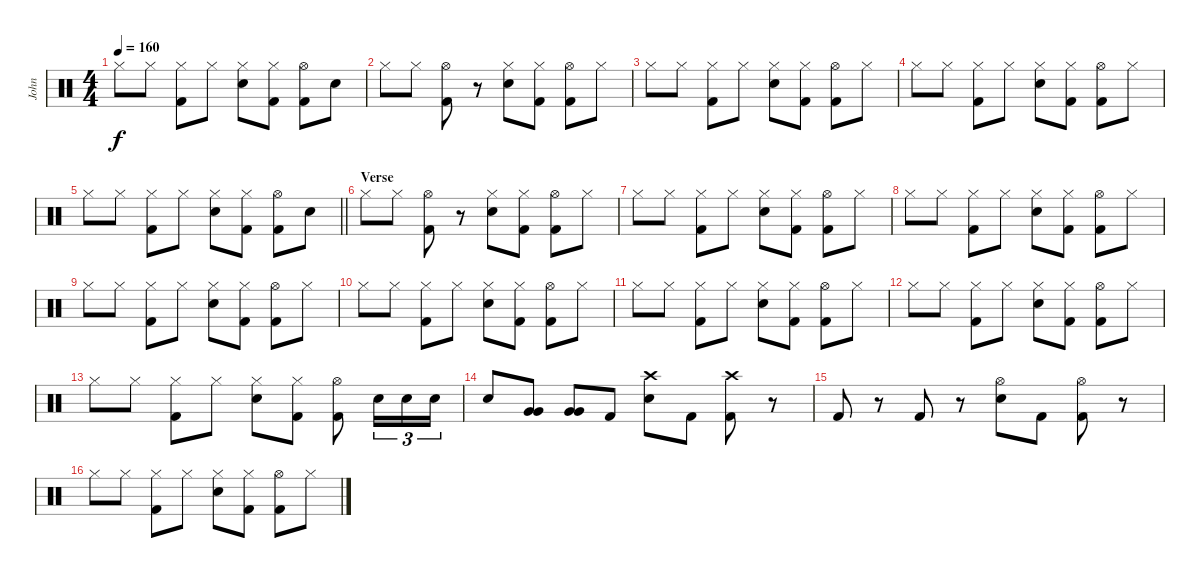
\track ("John" "John") {instrument percussion}
\staff {score}
\articulation defaults
\ts (4 4)
\tempo 160
\clef neutral
\ks c "Hi-Hat (closed)".8{dy f} "Hi-Hat (closed)".8
("Hi-Hat (closed)" "Kick (hit) 2").8 "Hi-Hat (closed)".8 ("Hi-Hat (closed)" "Snare (hit) 2").8 ("Hi-Hat (closed)" "Kick (hit) 2").8 ("Hi-Hat (open)" "Kick (hit) 2").8 "Snare (hit) 2".8 |
"Hi-Hat (closed)".8 "Hi-Hat (closed)".8 ("Hi-Hat (open)" "Kick (hit) 2").8 r.8 ("Hi-Hat (closed)" "Snare (hit) 2").8 ("Hi-Hat (closed)" "Kick (hit) 2").8 ("Hi-Hat (open)" "Kick (hit) 2").8 "Hi-Hat (closed)".8 |
"Hi-Hat (closed)".8 "Hi-Hat (closed)".8 ("Hi-Hat (closed)" "Kick (hit) 2").8 "Hi-Hat (closed)".8 ("Hi-Hat (closed)" "Snare (hit) 2").8 ("Hi-Hat (closed)" "Kick (hit) 2").8 ("Hi-Hat (open)" "Kick (hit) 2").8 "Hi-Hat (closed)".8 |
"Hi-Hat (closed)".8 "Hi-Hat (closed)".8 ("Hi-Hat (closed)" "Kick (hit) 2").8 "Hi-Hat (closed)".8 ("Hi-Hat (closed)" "Snare (hit) 2").8 ("Hi-Hat (closed)" "Kick (hit) 2").8 ("Hi-Hat (open)" "Kick (hit) 2").8 "Hi-Hat (closed)".8 |
\barLineRight lightlight "Hi-Hat (closed)".8 "Hi-Hat (closed)".8
("Hi-Hat (closed)" "Kick (hit) 2").8 "Hi-Hat (closed)".8 ("Hi-Hat (closed)" "Snare (hit) 2").8 ("Hi-Hat (closed)" "Kick (hit) 2").8 ("Hi-Hat (open)" "Kick (hit) 2").8 "Snare (hit) 2".8 |
\section ("" "Verse")
"Hi-Hat (closed)".8 "Hi-Hat (closed)".8 ("Hi-Hat (open)" "Kick (hit) 2").8 r.8 ("Hi-Hat (closed)" "Snare (hit) 2").8 ("Hi-Hat (closed)" "Kick (hit) 2").8 ("Hi-Hat (open)" "Kick (hit) 2").8 "Hi-Hat (closed)".8 |
"Hi-Hat (closed)".8 "Hi-Hat (closed)".8 ("Hi-Hat (closed)" "Kick (hit) 2").8 "Hi-Hat (closed)".8 ("Hi-Hat (closed)" "Snare (hit) 2").8 ("Hi-Hat (closed)" "Kick (hit) 2").8 ("Hi-Hat (open)" "Kick (hit) 2").8 "Hi-Hat (closed)".8 |
"Hi-Hat (closed)".8 "Hi-Hat (closed)".8 ("Hi-Hat (closed)" "Kick (hit) 2").8 "Hi-Hat (closed)".8 ("Hi-Hat (closed)" "Snare (hit) 2").8 ("Hi-Hat (closed)" "Kick (hit) 2").8 ("Hi-Hat (open)" "Kick (hit) 2").8 "Hi-Hat (closed)".8 |
"Hi-Hat (closed)".8 "Hi-Hat (closed)".8 ("Hi-Hat (closed)" "Kick (hit) 2").8 "Hi-Hat (closed)".8 ("Hi-Hat (closed)" "Snare (hit) 2").8 ("Hi-Hat (closed)" "Kick (hit) 2").8 ("Hi-Hat (open)" "Kick (hit) 2").8 "Hi-Hat (closed)".8 |
"Hi-Hat (closed)".8 "Hi-Hat (closed)".8 ("Hi-Hat (closed)" "Kick (hit) 2").8 "Hi-Hat (closed)".8 ("Hi-Hat (closed)" "Snare (hit) 2").8 ("Hi-Hat (closed)" "Kick (hit) 2").8 ("Hi-Hat (open)" "Kick (hit) 2").8 "Hi-Hat (closed)".8 |
"Hi-Hat (closed)".8 "Hi-Hat (closed)".8 ("Hi-Hat (closed)" "Kick (hit) 2").8 "Hi-Hat (closed)".8 ("Hi-Hat (closed)" "Snare (hit) 2").8 ("Hi-Hat (closed)" "Kick (hit) 2").8 ("Hi-Hat (open)" "Kick (hit) 2").8 "Hi-Hat (closed)".8 |
"Hi-Hat (closed)".8 "Hi-Hat (closed)".8 ("Hi-Hat (closed)" "Kick (hit) 2").8 "Hi-Hat (closed)".8 ("Hi-Hat (closed)" "Snare (hit) 2").8 ("Hi-Hat (closed)" "Kick (hit) 2").8 ("Hi-Hat (open)" "Kick (hit) 2").8 "Hi-Hat (closed)".8 |
"Hi-Hat (closed)".8 "Hi-Hat (closed)".8 ("Hi-Hat (closed)" "Kick (hit) 2").8 "Hi-Hat (closed)".8 ("Hi-Hat (closed)" "Snare (hit) 2").8 ("Hi-Hat (closed)" "Kick (hit) 2").8 ("Hi-Hat (open)" "Kick (hit) 2").8 "Snare (hit) 2".16{tu (3 2)} "Snare (hit) 2".16{tu (3 2)} "Snare (hit) 2".16{tu (3 2)} |
"Snare (hit) 2".8 ("Very Low Tom (hit)" "Very Low Tom (hit)").8 ("Very Low Tom (hit)" "Very Low Tom (hit)").8 "Kick (hit) 2".8 ("Crash high (hit)" "Snare (hit) 2").8 "Kick (hit) 2".8 ("Crash high (hit)" "Kick (hit) 2").8 r.8 |
"Kick (hit) 2".8 r.8 "Kick (hit) 2".8 r.8 ("Hi-Hat (open)" "Snare (hit) 2").8 "Kick (hit) 2".8 ("Hi-Hat (open)" "Kick (hit) 2").8 r.8 |
"Hi-Hat (closed)".8 "Hi-Hat (closed)".8 ("Hi-Hat (closed)" "Kick (hit) 2").8 "Hi-Hat (closed)".8 ("Hi-Hat (closed)" "Snare (hit) 2").8 ("Hi-Hat (closed)" "Kick (hit) 2").8 ("Hi-Hat (open)" "Kick (hit) 2").8 "Hi-Hat (closed)".8
